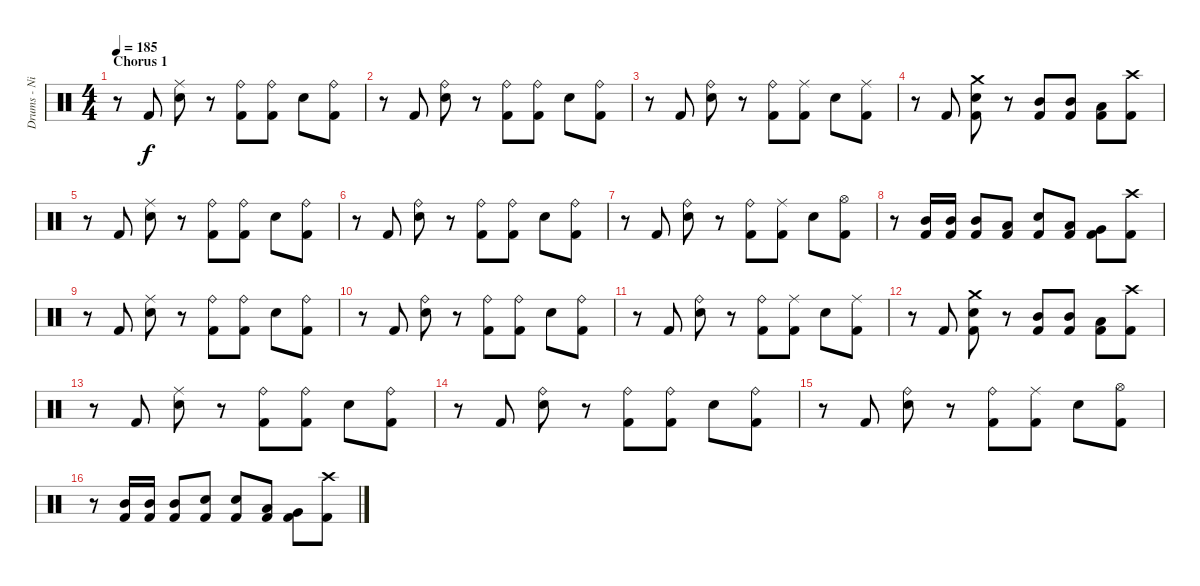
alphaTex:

\track ("Drums - Nicko" "Drums - Ni") {instrument percussion}
\staff {score}
\articulation defaults
\ts (4 4)
\section ("" "Chorus 1")
\tempo 185
\clef neutral
\ks c
r.8{dy f} "Kick (hit) 2".8 ("Ride (middle)" "Snare (hit) 2").8 r.8 ("Ride (bell)" "Kick (hit) 2").8 ("Ride (bell)" "Kick (hit) 2").8 "Snare (hit) 2".8 ("Ride (bell)" "Kick (hit) 2").8 |
r.8 "Kick (hit) 2".8 ("Ride (bell)" "Snare (hit) 2").8 r.8 ("Ride (bell)" "Kick (hit) 2").8 ("Ride (bell)" "Kick (hit) 2").8 "Snare (hit) 2".8 ("Ride (bell)" "Kick (hit) 2").8 |
r.8 "Kick (hit) 2".8 ("Ride (bell)" "Snare (hit) 2").8 r.8 ("Ride (bell)" "Kick (hit) 2").8 ("Ride (middle)" "Kick (hit) 2").8 "Snare (hit) 2".8 ("Ride (middle)" "Kick (hit) 2").8 |
r.8 "Kick (hit) 2".8 ("Crash medium (hit)" "Snare (hit) 2" "Kick (hit) 2").8 r.8 ("Mid Tom (hit)" "Kick (hit) 2").8 ("Mid Tom (hit)" "Kick (hit) 2").8 ("Low Tom (hit)" "Kick (hit) 2").8 ("Crash high (hit)" "Kick (hit) 2").8 |
r.8 "Kick (hit) 2".8 ("Ride (middle)" "Snare (hit) 2").8 r.8 ("Ride (bell)" "Kick (hit) 2").8 ("Ride (bell)" "Kick (hit) 2").8 "Snare (hit) 2".8 ("Ride (bell)" "Kick (hit) 2").8 |
r.8 "Kick (hit) 2".8 ("Ride (bell)" "Snare (hit) 2").8 r.8 ("Ride (bell)" "Kick (hit) 2").8 ("Ride (bell)" "Kick (hit) 2").8 "Snare (hit) 2".8 ("Ride (bell)" "Kick (hit) 2").8 |
r.8 "Kick (hit) 2".8 ("Ride (bell)" "Snare (hit) 2").8 r.8 ("Ride (bell)" "Kick (hit) 2").8 ("Ride (middle)" "Kick (hit) 2").8 "Snare (hit) 2".8 ("Hi-Hat (open)" "Kick (hit) 2").8 |
r.8 ("Mid Tom (hit)" "Kick (hit) 2").16 ("Mid Tom (hit)" "Kick (hit) 2").16 ("Mid Tom (hit)" "Kick (hit) 2").8 ("Low Tom (hit)" "Kick (hit) 2").8 ("Snare (hit) 2" "Kick (hit) 2").8 ("Low Tom (hit)" "Kick (hit) 2").8 ("Very Low Tom (hit)" "Kick (hit) 2").8 ("Crash high (hit)" "Kick (hit) 2").8 |
\section ("" "")
r.8 "Kick (hit) 2".8 ("Ride (middle)" "Snare (hit) 2").8 r.8 ("Ride (bell)" "Kick (hit) 2").8 ("Ride (bell)" "Kick (hit) 2").8 "Snare (hit) 2".8 ("Ride (bell)" "Kick (hit) 2").8 |
r.8 "Kick (hit) 2".8 ("Ride (bell)" "Snare (hit) 2").8 r.8 ("Ride (bell)" "Kick (hit) 2").8 ("Ride (bell)" "Kick (hit) 2").8 "Snare (hit) 2".8 ("Ride (bell)" "Kick (hit) 2").8 |
r.8 "Kick (hit) 2".8 ("Ride (bell)" "Snare (hit) 2").8 r.8 ("Ride (bell)" "Kick (hit) 2").8 ("Ride (middle)" "Kick (hit) 2").8 "Snare (hit) 2".8 ("Ride (middle)" "Kick (hit) 2").8 |
r.8 "Kick (hit) 2".8 ("Crash medium (hit)" "Snare (hit) 2" "Kick (hit) 2").8 r.8 ("Mid Tom (hit)" "Kick (hit) 2").8 ("Mid Tom (hit)" "Kick (hit) 2").8 ("Low Tom (hit)" "Kick (hit) 2").8 ("Crash high (hit)" "Kick (hit) 2").8 |
r.8 "Kick (hit) 2".8 ("Ride (middle)" "Snare (hit) 2").8 r.8 ("Ride (bell)" "Kick (hit) 2").8 ("Ride (bell)" "Kick (hit) 2").8 "Snare (hit) 2".8 ("Ride (bell)" "Kick (hit) 2").8 |
r.8 "Kick (hit) 2".8 ("Ride (bell)" "Snare (hit) 2").8 r.8 ("Ride (bell)" "Kick (hit) 2").8 ("Ride (bell)" "Kick (hit) 2").8 "Snare (hit) 2".8 ("Ride (bell)" "Kick (hit) 2").8 |
r.8 "Kick (hit) 2".8 ("Ride (bell)" "Snare (hit) 2").8 r.8 ("Ride (bell)" "Kick (hit) 2").8 ("Ride (middle)" "Kick (hit) 2").8 "Snare (hit) 2".8 ("Hi-Hat (open)" "Kick (hit) 2").8 |
r.8 ("Mid Tom (hit)" "Kick (hit) 2").16 ("Mid Tom (hit)" "Kick (hit) 2").16 ("Mid Tom (hit)" "Kick (hit) 2").8 ("Snare (hit) 2" "Kick (hit) 2").8 ("Snare (hit) 2" "Kick (hit) 2").8 ("Low Tom (hit)" "Kick (hit) 2").8 ("Very Low Tom (hit)" "Kick (hit) 2").8 ("Crash high (hit)" "Kick (hit) 2").8
